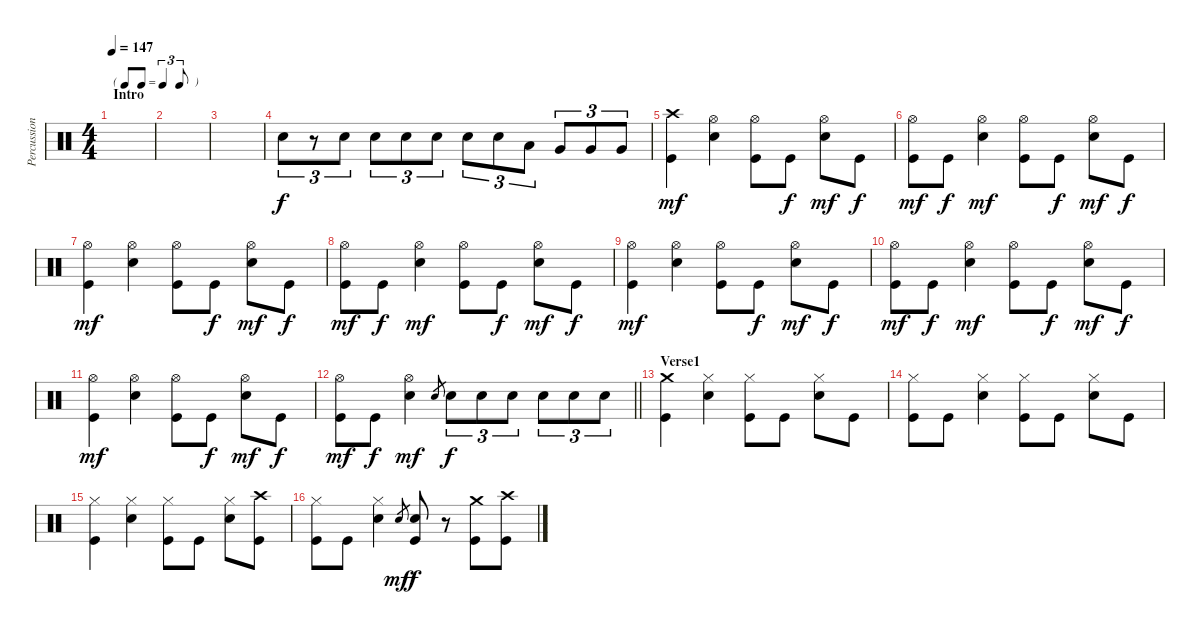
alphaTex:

\track ("Percussion" "Percussion") {instrument percussion}
\staff {score}
\articulation defaults
\ts (4 4)
\tf triplet8th
\section ("" "Intro")
\tempo 147
\clef neutral
\ks c
|
|
|
"Snare (hit) 2".8{tu (3 2)} r.8{tu (3 2)} "Snare (hit) 2".8{tu (3 2)} "Snare (hit) 2".8{tu (3 2)} "Snare (hit) 2".8{tu (3 2)} "Snare (hit) 2".8{tu (3 2)} "Snare (hit) 2".8{tu (3 2)} "Snare (hit) 2".8{tu (3 2)} "Low Tom (hit)".8{tu (3 2)} "Very Low Tom (hit)".8{tu (3 2)} "Very Low Tom (hit)".8{tu (3 2)} "Very Low Tom (hit)".8{tu (3 2)} |
("Kick (hit)" "Crash high (hit)").4{dy mf} ("Hi-Hat (open)" "Snare (hit) 2").4 ("Kick (hit)" "Hi-Hat (open)").8 "Kick (hit)".8{dy f} ("Hi-Hat (open)" "Snare (hit) 2").8{dy mf} "Kick (hit)".8{dy f} |
("Kick (hit)" "Hi-Hat (open)").8{dy mf} "Kick (hit)".8{dy f} ("Hi-Hat (open)" "Snare (hit) 2").4{dy mf} ("Kick (hit)" "Hi-Hat (open)").8 "Kick (hit)".8{dy f} ("Hi-Hat (open)" "Snare (hit) 2").8{dy mf} "Kick (hit)".8{dy f} |
("Kick (hit)" "Hi-Hat (open)").4{dy mf} ("Hi-Hat (open)" "Snare (hit) 2").4 ("Kick (hit)" "Hi-Hat (open)").8 "Kick (hit)".8{dy f} ("Hi-Hat (open)" "Snare (hit) 2").8{dy mf} "Kick (hit)".8{dy f} |
("Kick (hit)" "Hi-Hat (open)").8{dy mf} "Kick (hit)".8{dy f} ("Hi-Hat (open)" "Snare (hit) 2").4{dy mf} ("Kick (hit)" "Hi-Hat (open)").8 "Kick (hit)".8{dy f} ("Hi-Hat (open)" "Snare (hit) 2").8{dy mf} "Kick (hit)".8{dy f} |
("Kick (hit)" "Hi-Hat (open)").4{dy mf} ("Hi-Hat (open)" "Snare (hit) 2").4 ("Kick (hit)" "Hi-Hat (open)").8 "Kick (hit)".8{dy f} ("Hi-Hat (open)" "Snare (hit) 2").8{dy mf} "Kick (hit)".8{dy f} |
("Kick (hit)" "Hi-Hat (open)").8{dy mf} "Kick (hit)".8{dy f} ("Hi-Hat (open)" "Snare (hit) 2").4{dy mf} ("Kick (hit)" "Hi-Hat (open)").8 "Kick (hit)".8{dy f} ("Hi-Hat (open)" "Snare (hit) 2").8{dy mf} "Kick (hit)".8{dy f} |
("Kick (hit)" "Hi-Hat (open)").4{dy mf} ("Hi-Hat (open)" "Snare (hit) 2").4 ("Kick (hit)" "Hi-Hat (open)").8 "Kick (hit)".8{dy f} ("Hi-Hat (open)" "Snare (hit) 2").8{dy mf} "Kick (hit)".8{dy f} |
\barLineRight lightlight
("Kick (hit)" "Hi-Hat (open)").8{dy mf} "Kick (hit)".8{dy f} ("Hi-Hat (open)" "Snare (hit) 2").4{dy mf} "Snare (hit) 2".8{gr} "Snare (hit) 2".8{tu (3 2) dy f} "Snare (hit) 2".8{tu (3 2)} "Snare (hit) 2".8{tu (3 2)} "Snare (hit) 2".8{tu (3 2)} "Snare (hit) 2".8{tu (3 2)} "Snare (hit) 2".8{tu (3 2)} |
\section ("" "Verse1")
("Kick (hit)" "Crash medium (hit)").4 ("Hi-Hat (closed)" "Snare (hit) 2").4 ("Kick (hit)" "Hi-Hat (closed)").8 "Kick (hit)".8 ("Hi-Hat (closed)" "Snare (hit) 2").8 "Kick (hit)".8 |
("Kick (hit)" "Hi-Hat (closed)").8 "Kick (hit)".8 ("Hi-Hat (closed)" "Snare (hit) 2").4 ("Kick (hit)" "Hi-Hat (closed)").8 "Kick (hit)".8 ("Hi-Hat (closed)" "Snare (hit) 2").8 "Kick (hit)".8 |
("Kick (hit)" "Hi-Hat (closed)").4 ("Hi-Hat (closed)" "Snare (hit) 2").4 ("Kick (hit)" "Hi-Hat (closed)").8 "Kick (hit)".8 ("Hi-Hat (closed)" "Snare (hit) 2").8 ("Kick (hit)" "Crash high (hit)").8 |
("Kick (hit)" "Hi-Hat (closed)").8 "Kick (hit)".8 ("Hi-Hat (closed)" "Snare (hit) 2").4 "Snare (hit) 2".8{gr dy mf} ("Kick (hit)" "Snare (hit) 2").8{dy f} r.8 ("Kick (hit)" "Crash medium (hit)").8 ("Kick (hit)" "Crash high (hit)").8
